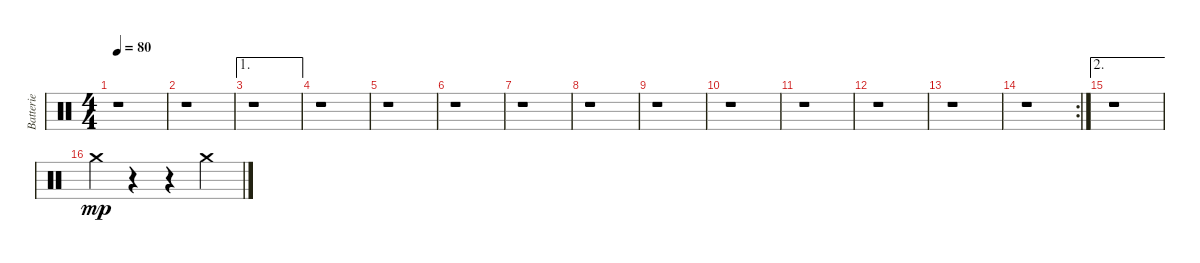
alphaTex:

\track ("Batterie" "Batterie") {instrument percussion}
\staff {score}
\articulation defaults
\ts (4 4)
\tempo 80
\clef neutral
\ks c
r.1{dy mp} |
r.1 |
\ae 1
r.1 |
r.1 |
r.1 |
r.1 |
r.1 |
r.1 |
r.1 |
r.1 |
r.1 |
r.1 |
r.1 |
\rc 2
r.1 |
\ae 2
r.1 |
"Crash medium (hit)".4 r.4 r.4 "Crash medium (hit)".4
